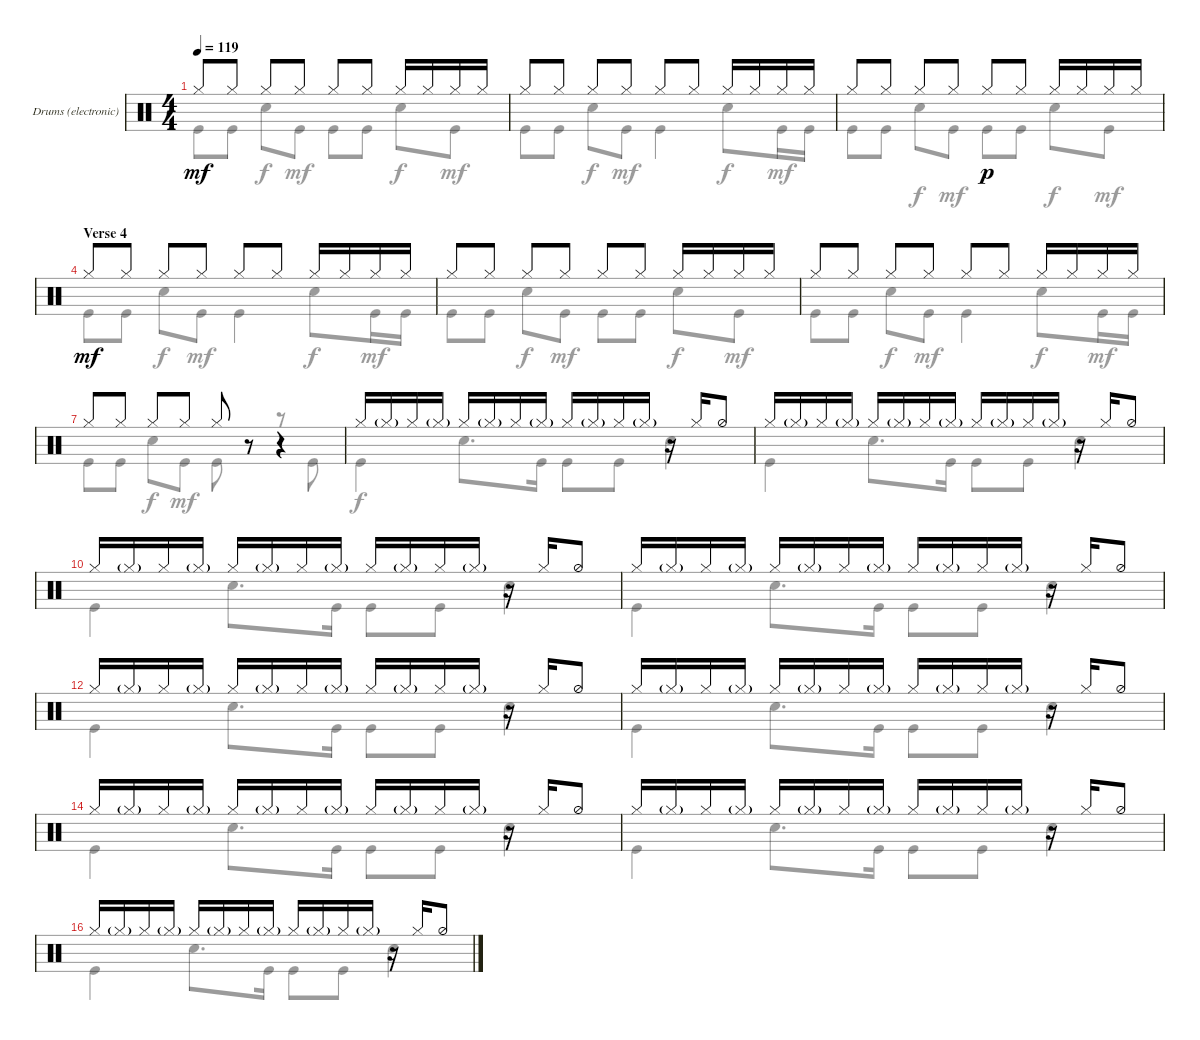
\defaultSystemsLayout 4
\bracketExtendMode groupsimilarinstruments
\useSystemSignSeparator
\multiBarRest
\multiTrackTrackNamePolicy allsystems
\firstSystemTrackNameMode fullname
\firstSystemTrackNameOrientation horizontal
\otherSystemsTrackNameOrientation horizontal
\defaultBarNumberDisplay FirstOfSystem
\track ("Drums (electronic)" "Dr.") {multiBarRest instrument percussion}
\staff {score}
\articulation defaults
\voice
\ts (4 4)
\tempo 119
\clef neutral
\ks aminor "Hi-Hat (closed)".8{dy mf} "Hi-Hat (closed)".8 "Hi-Hat (closed)".8 "Hi-Hat (closed)".8 "Hi-Hat (closed)".8 "Hi-Hat (closed)".8 "Hi-Hat (closed)".16 "Hi-Hat (closed)".16 "Hi-Hat (closed)".16 "Hi-Hat (closed)".16
|
"Hi-Hat (closed)".8 "Hi-Hat (closed)".8 "Hi-Hat (closed)".8 "Hi-Hat (closed)".8 "Hi-Hat (closed)".8 "Hi-Hat (closed)".8 "Hi-Hat (closed)".16 "Hi-Hat (closed)".16 "Hi-Hat (closed)".16 "Hi-Hat (closed)".16 |
"Hi-Hat (closed)".8 "Hi-Hat (closed)".8 "Hi-Hat (closed)".8 "Hi-Hat (closed)".8 "Hi-Hat (closed)".8{dy p} "Hi-Hat (closed)".8 "Hi-Hat (closed)".16 "Hi-Hat (closed)".16 "Hi-Hat (closed)".16 "Hi-Hat (closed)".16 |
\section ("" "Verse 4")
"Hi-Hat (closed)".8{dy mf} "Hi-Hat (closed)".8 "Hi-Hat (closed)".8 "Hi-Hat (closed)".8 "Hi-Hat (closed)".8 "Hi-Hat (closed)".8 "Hi-Hat (closed)".16 "Hi-Hat (closed)".16 "Hi-Hat (closed)".16 "Hi-Hat (closed)".16 |
"Hi-Hat (closed)".8 "Hi-Hat (closed)".8 "Hi-Hat (closed)".8 "Hi-Hat (closed)".8 "Hi-Hat (closed)".8 "Hi-Hat (closed)".8 "Hi-Hat (closed)".16 "Hi-Hat (closed)".16 "Hi-Hat (closed)".16 "Hi-Hat (closed)".16 |
"Hi-Hat (closed)".8 "Hi-Hat (closed)".8 "Hi-Hat (closed)".8 "Hi-Hat (closed)".8 "Hi-Hat (closed)".8 "Hi-Hat (closed)".8 "Hi-Hat (closed)".16 "Hi-Hat (closed)".16 "Hi-Hat (closed)".16 "Hi-Hat (closed)".16 |
"Hi-Hat (closed)".8 "Hi-Hat (closed)".8 "Hi-Hat (closed)".8 "Hi-Hat (closed)".8 "Hi-Hat (closed)".8 r.8 r.4 |
"Hi-Hat (closed)".16 "Hi-Hat (closed)"{g}.16 "Hi-Hat (closed)".16 "Hi-Hat (closed)"{g}.16 "Hi-Hat (closed)".16 "Hi-Hat (closed)"{g}.16 "Hi-Hat (closed)".16 "Hi-Hat (closed)"{g}.16 "Hi-Hat (closed)".16 "Hi-Hat (closed)"{g}.16 "Hi-Hat (closed)".16 "Hi-Hat (closed)"{g}.16 r.16 "Hi-Hat (closed)".16 "Hi-Hat (half)".8 |
"Hi-Hat (closed)".16 "Hi-Hat (closed)"{g}.16 "Hi-Hat (closed)".16 "Hi-Hat (closed)"{g}.16 "Hi-Hat (closed)".16 "Hi-Hat (closed)"{g}.16 "Hi-Hat (closed)".16 "Hi-Hat (closed)"{g}.16 "Hi-Hat (closed)".16 "Hi-Hat (closed)"{g}.16 "Hi-Hat (closed)".16 "Hi-Hat (closed)"{g}.16 r.16 "Hi-Hat (closed)".16 "Hi-Hat (half)".8 |
"Hi-Hat (closed)".16 "Hi-Hat (closed)"{g}.16 "Hi-Hat (closed)".16 "Hi-Hat (closed)"{g}.16 "Hi-Hat (closed)".16 "Hi-Hat (closed)"{g}.16 "Hi-Hat (closed)".16 "Hi-Hat (closed)"{g}.16 "Hi-Hat (closed)".16 "Hi-Hat (closed)"{g}.16 "Hi-Hat (closed)".16 "Hi-Hat (closed)"{g}.16 r.16 "Hi-Hat (closed)".16 "Hi-Hat (half)".8 |
"Hi-Hat (closed)".16 "Hi-Hat (closed)"{g}.16 "Hi-Hat (closed)".16 "Hi-Hat (closed)"{g}.16 "Hi-Hat (closed)".16 "Hi-Hat (closed)"{g}.16 "Hi-Hat (closed)".16 "Hi-Hat (closed)"{g}.16 "Hi-Hat (closed)".16 "Hi-Hat (closed)"{g}.16 "Hi-Hat (closed)".16 "Hi-Hat (closed)"{g}.16 r.16 "Hi-Hat (closed)".16 "Hi-Hat (half)".8 |
"Hi-Hat (closed)".16 "Hi-Hat (closed)"{g}.16 "Hi-Hat (closed)".16 "Hi-Hat (closed)"{g}.16 "Hi-Hat (closed)".16 "Hi-Hat (closed)"{g}.16 "Hi-Hat (closed)".16 "Hi-Hat (closed)"{g}.16 "Hi-Hat (closed)".16 "Hi-Hat (closed)"{g}.16 "Hi-Hat (closed)".16 "Hi-Hat (closed)"{g}.16 r.16 "Hi-Hat (closed)".16 "Hi-Hat (half)".8 |
"Hi-Hat (closed)".16 "Hi-Hat (closed)"{g}.16 "Hi-Hat (closed)".16 "Hi-Hat (closed)"{g}.16 "Hi-Hat (closed)".16 "Hi-Hat (closed)"{g}.16 "Hi-Hat (closed)".16 "Hi-Hat (closed)"{g}.16 "Hi-Hat (closed)".16 "Hi-Hat (closed)"{g}.16 "Hi-Hat (closed)".16 "Hi-Hat (closed)"{g}.16 r.16 "Hi-Hat (closed)".16 "Hi-Hat (half)".8 |
"Hi-Hat (closed)".16 "Hi-Hat (closed)"{g}.16 "Hi-Hat (closed)".16 "Hi-Hat (closed)"{g}.16 "Hi-Hat (closed)".16 "Hi-Hat (closed)"{g}.16 "Hi-Hat (closed)".16 "Hi-Hat (closed)"{g}.16 "Hi-Hat (closed)".16 "Hi-Hat (closed)"{g}.16 "Hi-Hat (closed)".16 "Hi-Hat (closed)"{g}.16 r.16 "Hi-Hat (closed)".16 "Hi-Hat (half)".8 |
"Hi-Hat (closed)".16 "Hi-Hat (closed)"{g}.16 "Hi-Hat (closed)".16 "Hi-Hat (closed)"{g}.16 "Hi-Hat (closed)".16 "Hi-Hat (closed)"{g}.16 "Hi-Hat (closed)".16 "Hi-Hat (closed)"{g}.16 "Hi-Hat (closed)".16 "Hi-Hat (closed)"{g}.16 "Hi-Hat (closed)".16 "Hi-Hat (closed)"{g}.16 r.16 "Hi-Hat (closed)".16 "Hi-Hat (half)".8 |
"Hi-Hat (closed)".16 "Hi-Hat (closed)"{g}.16 "Hi-Hat (closed)".16 "Hi-Hat (closed)"{g}.16 "Hi-Hat (closed)".16 "Hi-Hat (closed)"{g}.16 "Hi-Hat (closed)".16 "Hi-Hat (closed)"{g}.16 "Hi-Hat (closed)".16 "Hi-Hat (closed)"{g}.16 "Hi-Hat (closed)".16 "Hi-Hat (closed)"{g}.16 r.16 "Hi-Hat (closed)".16 "Hi-Hat (half)".8
\voice
\clef neutral
\ottava regular
\simile none
\ks aminor "Kick (hit)".8{dy mf} "Kick (hit)".8 "Snare (hit) 2".8{dy f} "Kick (hit)".8{dy mf} "Kick (hit)".8 "Kick (hit)".8 "Snare (hit) 2".8{dy f} "Kick (hit)".8{dy mf}
|
"Kick (hit)".8 "Kick (hit)".8 "Snare (hit) 2".8{dy f} "Kick (hit)".8{dy mf} "Kick (hit)".4 "Snare (hit) 2".8{dy f} "Kick (hit)".16{dy mf} "Kick (hit)".16 |
"Kick (hit)".8 "Kick (hit)".8 "Snare (hit) 2".8{dy f} "Kick (hit)".8{dy mf} "Kick (hit)".8 "Kick (hit)".8 "Snare (hit) 2".8{dy f} "Kick (hit)".8{dy mf} |
"Kick (hit)".8 "Kick (hit)".8 "Snare (hit) 2".8{dy f} "Kick (hit)".8{dy mf} "Kick (hit)".4 "Snare (hit) 2".8{dy f} "Kick (hit)".16{dy mf} "Kick (hit)".16 |
"Kick (hit)".8 "Kick (hit)".8 "Snare (hit) 2".8{dy f} "Kick (hit)".8{dy mf} "Kick (hit)".8 "Kick (hit)".8 "Snare (hit) 2".8{dy f} "Kick (hit)".8{dy mf} |
"Kick (hit)".8 "Kick (hit)".8 "Snare (hit) 2".8{dy f} "Kick (hit)".8{dy mf} "Kick (hit)".4 "Snare (hit) 2".8{dy f} "Kick (hit)".16{dy mf} "Kick (hit)".16 |
"Kick (hit)".8 "Kick (hit)".8 "Snare (hit) 2".8{dy f} "Kick (hit)".8{dy mf} "Kick (hit)".8 r.8 r.8 "Kick (hit)".8 |
"Kick (hit)".4{dy f} "Snare (hit) 2".8{d} "Kick (hit)".16 "Kick (hit)".8 "Kick (hit)".8 "Snare (hit) 2".4 |
"Kick (hit)".4 "Snare (hit) 2".8{d} "Kick (hit)".16 "Kick (hit)".8 "Kick (hit)".8 "Snare (hit) 2".4 |
"Kick (hit)".4 "Snare (hit) 2".8{d} "Kick (hit)".16 "Kick (hit)".8 "Kick (hit)".8 "Snare (hit) 2".4 |
"Kick (hit)".4 "Snare (hit) 2".8{d} "Kick (hit)".16 "Kick (hit)".8 "Kick (hit)".8 "Snare (hit) 2".4 |
"Kick (hit)".4 "Snare (hit) 2".8{d} "Kick (hit)".16 "Kick (hit)".8 "Kick (hit)".8 "Snare (hit) 2".4 |
"Kick (hit)".4 "Snare (hit) 2".8{d} "Kick (hit)".16 "Kick (hit)".8 "Kick (hit)".8 "Snare (hit) 2".4 |
"Kick (hit)".4 "Snare (hit) 2".8{d} "Kick (hit)".16 "Kick (hit)".8 "Kick (hit)".8 "Snare (hit) 2".4 |
"Kick (hit)".4 "Snare (hit) 2".8{d} "Kick (hit)".16 "Kick (hit)".8 "Kick (hit)".8 "Snare (hit) 2".4 |
"Kick (hit)".4 "Snare (hit) 2".8{d} "Kick (hit)".16 "Kick (hit)".8 "Kick (hit)".8 "Snare (hit) 2".4
